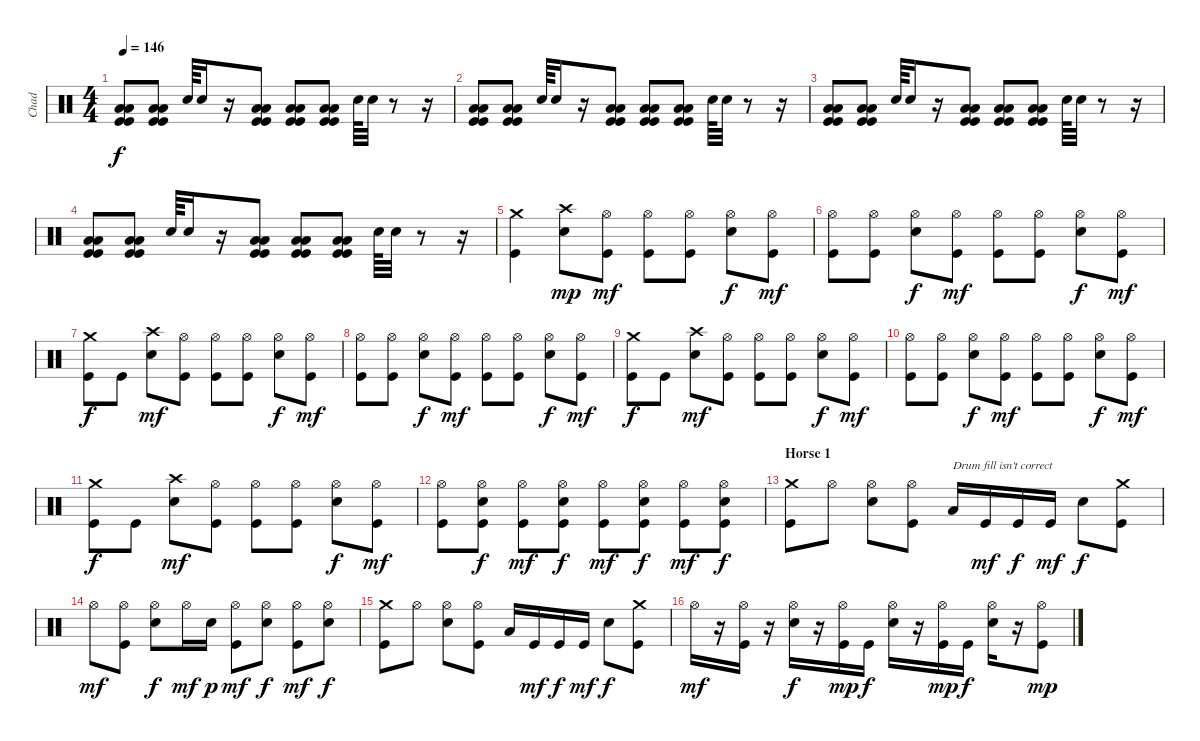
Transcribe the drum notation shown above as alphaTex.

\track ("Chad" "Chad") {instrument percussion}
\staff {score}
\articulation defaults
\ts (4 4)
\tempo 146
\clef neutral
\ks c
("Low Tom (hit)" "Low Floor Tom (hit)" "Kick (hit)" "Kick (hit)").8{dy f} ("Low Tom (hit)" "Low Floor Tom (hit)" "Kick (hit)" "Kick (hit)").8 "Snare (hit) 2".64 "Snare (hit) 2".16 r.16 ("Low Tom (hit)" "Low Floor Tom (hit)" "Kick (hit)" "Kick (hit)").8 ("Low Tom (hit)" "Low Floor Tom (hit)" "Kick (hit)" "Kick (hit)").8 ("Low Tom (hit)" "Low Floor Tom (hit)" "Kick (hit)" "Kick (hit)").8 "Snare (hit) 2".64 "Snare (hit) 2".32 r.8 r.16 |
("Low Tom (hit)" "Low Floor Tom (hit)" "Kick (hit)" "Kick (hit)").8 ("Low Tom (hit)" "Low Floor Tom (hit)" "Kick (hit)" "Kick (hit)").8 "Snare (hit) 2".64 "Snare (hit) 2".16 r.16 ("Low Tom (hit)" "Low Floor Tom (hit)" "Kick (hit)" "Kick (hit)").8 ("Low Tom (hit)" "Low Floor Tom (hit)" "Kick (hit)" "Kick (hit)").8 ("Low Tom (hit)" "Low Floor Tom (hit)" "Kick (hit)" "Kick (hit)").8 "Snare (hit) 2".64 "Snare (hit) 2".32 r.8 r.16 |
("Low Tom (hit)" "Low Floor Tom (hit)" "Kick (hit)" "Kick (hit)").8 ("Low Tom (hit)" "Low Floor Tom (hit)" "Kick (hit)" "Kick (hit)").8 "Snare (hit) 2".64 "Snare (hit) 2".16 r.16 ("Low Tom (hit)" "Low Floor Tom (hit)" "Kick (hit)" "Kick (hit)").8 ("Low Tom (hit)" "Low Floor Tom (hit)" "Kick (hit)" "Kick (hit)").8 ("Low Tom (hit)" "Low Floor Tom (hit)" "Kick (hit)" "Kick (hit)").8 "Snare (hit) 2".64 "Snare (hit) 2".32 r.8 r.16 |
("Low Tom (hit)" "Low Floor Tom (hit)" "Kick (hit)" "Kick (hit)").8 ("Low Tom (hit)" "Low Floor Tom (hit)" "Kick (hit)" "Kick (hit)").8 "Snare (hit) 2".64 "Snare (hit) 2".16 r.16 ("Low Tom (hit)" "Low Floor Tom (hit)" "Kick (hit)" "Kick (hit)").8 ("Low Tom (hit)" "Low Floor Tom (hit)" "Kick (hit)" "Kick (hit)").8 ("Low Tom (hit)" "Low Floor Tom (hit)" "Kick (hit)" "Kick (hit)").8 "Snare (hit) 2".64 "Snare (hit) 2".32 r.8 r.16 |
("Crash medium (hit)" "Kick (hit)").4 ("Crash high (hit)" "Snare (hit) 2").8{dy mp} ("Hi-Hat (open)" "Kick (hit)").8{dy mf} ("Hi-Hat (open)" "Kick (hit)").8 ("Hi-Hat (open)" "Kick (hit)").8 ("Hi-Hat (open)" "Snare (hit) 2").8{dy f} ("Hi-Hat (open)" "Kick (hit)").8{dy mf} |
("Hi-Hat (open)" "Kick (hit)").8 ("Hi-Hat (open)" "Kick (hit)").8 ("Hi-Hat (open)" "Snare (hit) 2").8{dy f} ("Hi-Hat (open)" "Kick (hit)").8{dy mf} ("Hi-Hat (open)" "Kick (hit)").8 ("Hi-Hat (open)" "Kick (hit)").8 ("Hi-Hat (open)" "Snare (hit) 2").8{dy f} ("Hi-Hat (open)" "Kick (hit)").8{dy mf} |
("Crash medium (hit)" "Kick (hit)").8{dy f} "Kick (hit)".8 ("Crash high (hit)" "Snare (hit) 2").8{dy mf} ("Hi-Hat (open)" "Kick (hit)").8 ("Hi-Hat (open)" "Kick (hit)").8 ("Hi-Hat (open)" "Kick (hit)").8 ("Hi-Hat (open)" "Snare (hit) 2").8{dy f} ("Hi-Hat (open)" "Kick (hit)").8{dy mf} |
("Hi-Hat (open)" "Kick (hit)").8 ("Hi-Hat (open)" "Kick (hit)").8 ("Hi-Hat (open)" "Snare (hit) 2").8{dy f} ("Hi-Hat (open)" "Kick (hit)").8{dy mf} ("Hi-Hat (open)" "Kick (hit)").8 ("Hi-Hat (open)" "Kick (hit)").8 ("Hi-Hat (open)" "Snare (hit) 2").8{dy f} ("Hi-Hat (open)" "Kick (hit)").8{dy mf} |
("Crash medium (hit)" "Kick (hit)").8{dy f} "Kick (hit)".8 ("Crash high (hit)" "Snare (hit) 2").8{dy mf} ("Hi-Hat (open)" "Kick (hit)").8 ("Hi-Hat (open)" "Kick (hit)").8 ("Hi-Hat (open)" "Kick (hit)").8 ("Hi-Hat (open)" "Snare (hit) 2").8{dy f} ("Hi-Hat (open)" "Kick (hit)").8{dy mf} |
("Hi-Hat (open)" "Kick (hit)").8 ("Hi-Hat (open)" "Kick (hit)").8 ("Hi-Hat (open)" "Snare (hit) 2").8{dy f} ("Hi-Hat (open)" "Kick (hit)").8{dy mf} ("Hi-Hat (open)" "Kick (hit)").8 ("Hi-Hat (open)" "Kick (hit)").8 ("Hi-Hat (open)" "Snare (hit) 2").8{dy f} ("Hi-Hat (open)" "Kick (hit)").8{dy mf} |
("Crash medium (hit)" "Kick (hit)").8{dy f} "Kick (hit)".8 ("Crash high (hit)" "Snare (hit) 2").8{dy mf} ("Hi-Hat (open)" "Kick (hit)").8 ("Hi-Hat (open)" "Kick (hit)").8 ("Hi-Hat (open)" "Kick (hit)").8 ("Hi-Hat (open)" "Snare (hit) 2").8{dy f} ("Hi-Hat (open)" "Kick (hit)").8{dy mf} |
("Hi-Hat (open)" "Kick (hit)").8 ("Hi-Hat (open)" "Snare (hit) 2" "Kick (hit)").8{dy f} ("Hi-Hat (open)" "Kick (hit)").8{dy mf} ("Hi-Hat (open)" "Snare (hit) 2" "Kick (hit)").8{dy f} ("Hi-Hat (open)" "Kick (hit)").8{dy mf} ("Hi-Hat (open)" "Snare (hit) 2" "Kick (hit)").8{dy f} ("Hi-Hat (open)" "Kick (hit)").8{dy mf} ("Hi-Hat (open)" "Snare (hit) 2" "Kick (hit)").8{dy f} |
\section ("" "Horse 1")
("Crash medium (hit)" "Kick (hit)").8 "Hi-Hat (open)".8 ("Hi-Hat (open)" "Snare (hit) 2").8 ("Hi-Hat (open)" "Kick (hit)").8 "Low Floor Tom (hit)".16{txt "Drum fill isn't correct"} "Kick (hit)".16{dy mf} "Kick (hit)".16{dy f} "Kick (hit)".16{dy mf} "Snare (hit) 2".8{dy f} ("Crash medium (hit)" "Kick (hit)").8 |
"Hi-Hat (open)".8{dy mf} ("Hi-Hat (open)" "Kick (hit)").8 ("Hi-Hat (open)" "Snare (hit) 2").8{dy f} "Hi-Hat (open)".16{dy mf} "Snare (hit) 2".16{dy p} ("Hi-Hat (open)" "Kick (hit)").8{dy mf} ("Hi-Hat (open)" "Snare (hit) 2").8{dy f} ("Hi-Hat (open)" "Kick (hit)").8{dy mf} ("Hi-Hat (open)" "Snare (hit) 2").8{dy f} |
("Crash medium (hit)" "Kick (hit)").8 "Hi-Hat (open)".8 ("Hi-Hat (open)" "Snare (hit) 2").8 ("Hi-Hat (open)" "Kick (hit)").8 "Low Floor Tom (hit)".16 "Kick (hit)".16{dy mf} "Kick (hit)".16{dy f} "Kick (hit)".16{dy mf} "Snare (hit) 2".8{dy f} ("Crash medium (hit)" "Kick (hit)").8 |
"Hi-Hat (open)".16{dy mf} r.16 ("Hi-Hat (open)" "Kick (hit)").16 r.16 ("Hi-Hat (open)" "Snare (hit) 2").16{dy f} r.16 ("Hi-Hat (open)" "Kick (hit)").16{dy mp} "Kick (hit)".16{dy f} ("Hi-Hat (open)" "Snare (hit) 2").16 r.16 ("Hi-Hat (open)" "Kick (hit)").16{dy mp} "Kick (hit)".16{dy f} ("Hi-Hat (open)" "Snare (hit) 2").16 r.16 ("Hi-Hat (open)" "Kick (hit)").8{dy mp}
